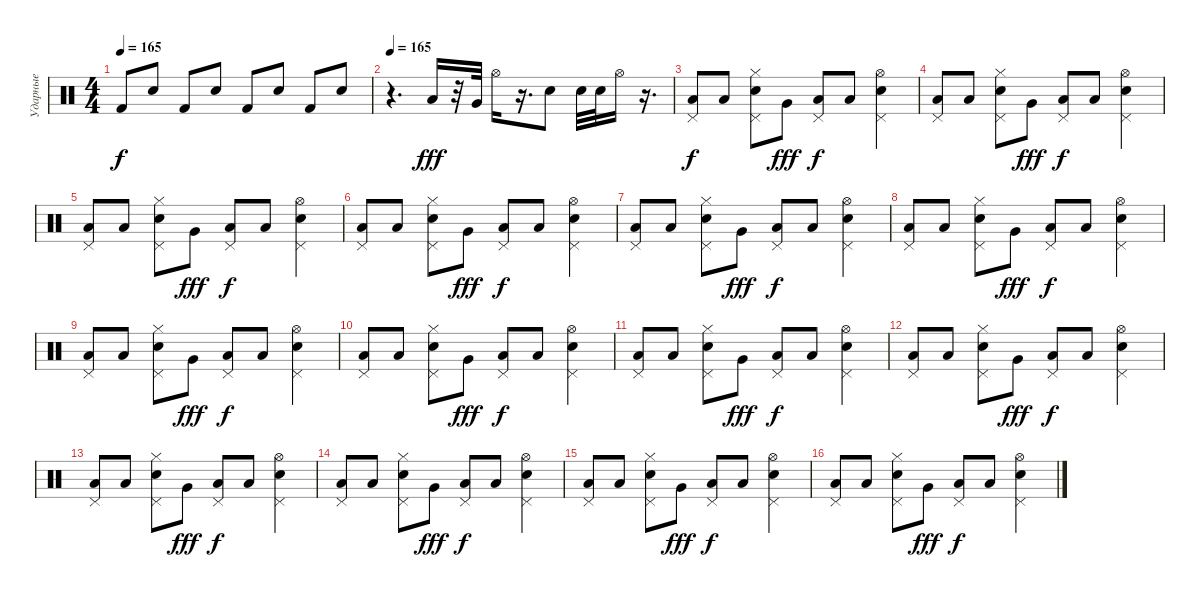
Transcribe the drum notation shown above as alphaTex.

\track ("Ударные" "Ударные") {instrument percussion}
\staff {score}
\articulation defaults
\ts (4 4)
\tempo 165
\clef neutral
\ks c "Kick (hit) 2".8{dy f} "Snare (hit) 2".8 "Kick (hit) 2".8 "Snare (hit) 2".8 "Kick (hit) 2".8 "Snare (hit) 2".8 "Kick (hit) 2".8 "Snare (hit) 2".8
|
\tempo 165
r.4{d} "Low Tom (hit)".16{dy fff} r.32 "Very Low Tom (hit)".32 "Hi-Hat (open)".16 r.16{d} "Snare (hit) 2".8 "Snare (hit) 2".32 "Snare (hit) 2".32 "Hi-Hat (open)".16 r.16{d} |
("Pedal Hi-Hat (hit)" "Low Floor Tom (hit)").8{dy f} "Low Floor Tom (hit)".8 ("Pedal Hi-Hat (hit)" "Electric Snare (hit)" "Hi-Hat (closed)").8 "Very Low Tom (hit)".8{dy fff} ("Pedal Hi-Hat (hit)" "Low Floor Tom (hit)").8{dy f} "Low Floor Tom (hit)".8 ("Pedal Hi-Hat (hit)" "Electric Snare (hit)" "Hi-Hat (open)").4 |
("Pedal Hi-Hat (hit)" "Low Floor Tom (hit)").8 "Low Floor Tom (hit)".8 ("Pedal Hi-Hat (hit)" "Electric Snare (hit)" "Hi-Hat (closed)").8 "Very Low Tom (hit)".8{dy fff} ("Pedal Hi-Hat (hit)" "Low Floor Tom (hit)").8{dy f} "Low Floor Tom (hit)".8 ("Pedal Hi-Hat (hit)" "Electric Snare (hit)" "Hi-Hat (open)").4 |
("Pedal Hi-Hat (hit)" "Low Floor Tom (hit)").8 "Low Floor Tom (hit)".8 ("Pedal Hi-Hat (hit)" "Electric Snare (hit)" "Hi-Hat (closed)").8 "Very Low Tom (hit)".8{dy fff} ("Pedal Hi-Hat (hit)" "Low Floor Tom (hit)").8{dy f} "Low Floor Tom (hit)".8 ("Pedal Hi-Hat (hit)" "Electric Snare (hit)" "Hi-Hat (open)").4 |
("Pedal Hi-Hat (hit)" "Low Floor Tom (hit)").8 "Low Floor Tom (hit)".8 ("Pedal Hi-Hat (hit)" "Electric Snare (hit)" "Hi-Hat (closed)").8 "Very Low Tom (hit)".8{dy fff} ("Pedal Hi-Hat (hit)" "Low Floor Tom (hit)").8{dy f} "Low Floor Tom (hit)".8 ("Electric Snare (hit)" "Pedal Hi-Hat (hit)" "Hi-Hat (open)").4 |
("Pedal Hi-Hat (hit)" "Low Floor Tom (hit)").8 "Low Floor Tom (hit)".8 ("Pedal Hi-Hat (hit)" "Electric Snare (hit)" "Hi-Hat (closed)").8 "Very Low Tom (hit)".8{dy fff} ("Pedal Hi-Hat (hit)" "Low Floor Tom (hit)").8{dy f} "Low Floor Tom (hit)".8 ("Pedal Hi-Hat (hit)" "Electric Snare (hit)" "Hi-Hat (open)").4 |
("Pedal Hi-Hat (hit)" "Low Floor Tom (hit)").8 "Low Floor Tom (hit)".8 ("Pedal Hi-Hat (hit)" "Electric Snare (hit)" "Hi-Hat (closed)").8 "Very Low Tom (hit)".8{dy fff} ("Pedal Hi-Hat (hit)" "Low Floor Tom (hit)").8{dy f} "Low Floor Tom (hit)".8 ("Electric Snare (hit)" "Pedal Hi-Hat (hit)" "Hi-Hat (open)").4 |
("Pedal Hi-Hat (hit)" "Low Floor Tom (hit)").8 "Low Floor Tom (hit)".8 ("Pedal Hi-Hat (hit)" "Electric Snare (hit)" "Hi-Hat (closed)").8 "Very Low Tom (hit)".8{dy fff} ("Pedal Hi-Hat (hit)" "Low Floor Tom (hit)").8{dy f} "Low Floor Tom (hit)".8 ("Electric Snare (hit)" "Pedal Hi-Hat (hit)" "Hi-Hat (open)").4 |
("Pedal Hi-Hat (hit)" "Low Floor Tom (hit)").8 "Low Floor Tom (hit)".8 ("Pedal Hi-Hat (hit)" "Electric Snare (hit)" "Hi-Hat (closed)").8 "Very Low Tom (hit)".8{dy fff} ("Pedal Hi-Hat (hit)" "Low Floor Tom (hit)").8{dy f} "Low Floor Tom (hit)".8 ("Pedal Hi-Hat (hit)" "Electric Snare (hit)" "Hi-Hat (open)").4 |
("Pedal Hi-Hat (hit)" "Low Floor Tom (hit)").8 "Low Floor Tom (hit)".8 ("Pedal Hi-Hat (hit)" "Electric Snare (hit)" "Hi-Hat (closed)").8 "Very Low Tom (hit)".8{dy fff} ("Pedal Hi-Hat (hit)" "Low Floor Tom (hit)").8{dy f} "Low Floor Tom (hit)".8 ("Electric Snare (hit)" "Pedal Hi-Hat (hit)" "Hi-Hat (open)").4 |
("Pedal Hi-Hat (hit)" "Low Floor Tom (hit)").8 "Low Floor Tom (hit)".8 ("Pedal Hi-Hat (hit)" "Electric Snare (hit)" "Hi-Hat (closed)").8 "Very Low Tom (hit)".8{dy fff} ("Pedal Hi-Hat (hit)" "Low Floor Tom (hit)").8{dy f} "Low Floor Tom (hit)".8 ("Pedal Hi-Hat (hit)" "Electric Snare (hit)" "Hi-Hat (open)").4 |
("Pedal Hi-Hat (hit)" "Low Floor Tom (hit)").8 "Low Floor Tom (hit)".8 ("Pedal Hi-Hat (hit)" "Electric Snare (hit)" "Hi-Hat (closed)").8 "Very Low Tom (hit)".8{dy fff} ("Pedal Hi-Hat (hit)" "Low Floor Tom (hit)").8{dy f} "Low Floor Tom (hit)".8 ("Pedal Hi-Hat (hit)" "Electric Snare (hit)" "Hi-Hat (open)").4 |
("Pedal Hi-Hat (hit)" "Low Floor Tom (hit)").8 "Low Floor Tom (hit)".8 ("Pedal Hi-Hat (hit)" "Electric Snare (hit)" "Hi-Hat (closed)").8 "Very Low Tom (hit)".8{dy fff} ("Pedal Hi-Hat (hit)" "Low Floor Tom (hit)").8{dy f} "Low Floor Tom (hit)".8 ("Electric Snare (hit)" "Pedal Hi-Hat (hit)" "Hi-Hat (open)").4 |
("Pedal Hi-Hat (hit)" "Low Floor Tom (hit)").8 "Low Floor Tom (hit)".8 ("Pedal Hi-Hat (hit)" "Electric Snare (hit)" "Hi-Hat (closed)").8 "Very Low Tom (hit)".8{dy fff} ("Pedal Hi-Hat (hit)" "Low Floor Tom (hit)").8{dy f} "Low Floor Tom (hit)".8 ("Electric Snare (hit)" "Pedal Hi-Hat (hit)" "Hi-Hat (open)").4 |
("Pedal Hi-Hat (hit)" "Low Floor Tom (hit)").8 "Low Floor Tom (hit)".8 ("Pedal Hi-Hat (hit)" "Electric Snare (hit)" "Hi-Hat (closed)").8 "Very Low Tom (hit)".8{dy fff} ("Pedal Hi-Hat (hit)" "Low Floor Tom (hit)").8{dy f} "Low Floor Tom (hit)".8 ("Pedal Hi-Hat (hit)" "Electric Snare (hit)" "Hi-Hat (open)").4
